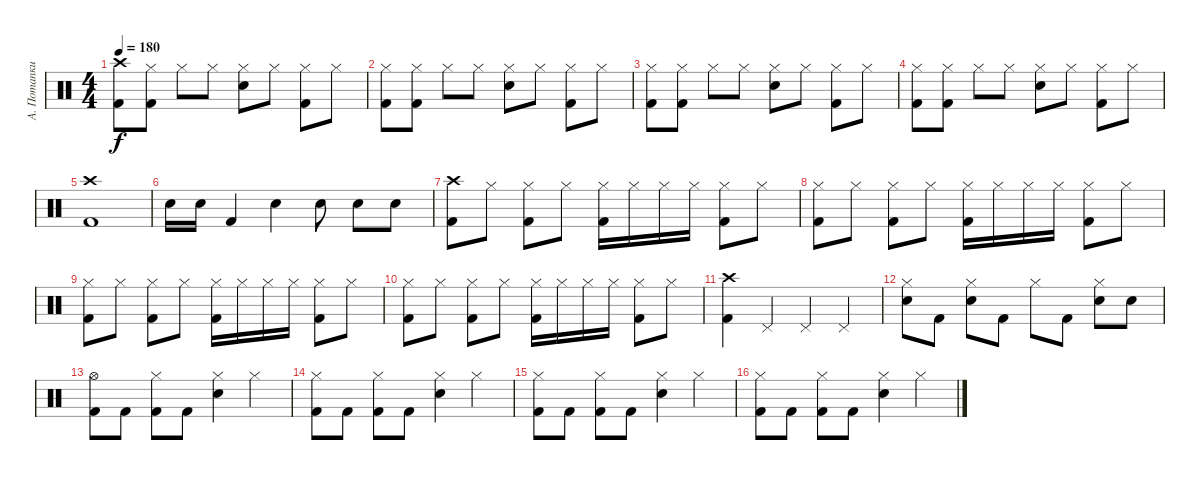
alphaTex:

\track ("А. Потапкин" "А. Потапки") {instrument percussion}
\staff {score}
\articulation defaults
\ts (4 4)
\tempo 180
\clef neutral
\ks c
("Crash high (hit)" "Kick (hit) 2").8{dy f} ("Hi-Hat (closed)" "Kick (hit) 2").8 "Hi-Hat (closed)".8 "Hi-Hat (closed)".8 ("Hi-Hat (closed)" "Electric Snare (hit)").8 "Hi-Hat (closed)".8 ("Hi-Hat (closed)" "Kick (hit) 2").8 "Hi-Hat (closed)".8 |
("Hi-Hat (closed)" "Kick (hit) 2").8 ("Hi-Hat (closed)" "Kick (hit) 2").8 "Hi-Hat (closed)".8 "Hi-Hat (closed)".8 ("Hi-Hat (closed)" "Electric Snare (hit)").8 "Hi-Hat (closed)".8 ("Hi-Hat (closed)" "Kick (hit) 2").8 "Hi-Hat (closed)".8 |
("Hi-Hat (closed)" "Kick (hit) 2").8 ("Hi-Hat (closed)" "Kick (hit) 2").8 "Hi-Hat (closed)".8 "Hi-Hat (closed)".8 ("Hi-Hat (closed)" "Electric Snare (hit)").8 "Hi-Hat (closed)".8 ("Hi-Hat (closed)" "Kick (hit) 2").8 "Hi-Hat (closed)".8 |
("Hi-Hat (closed)" "Kick (hit) 2").8 ("Hi-Hat (closed)" "Kick (hit) 2").8 "Hi-Hat (closed)".8 "Hi-Hat (closed)".8 ("Hi-Hat (closed)" "Electric Snare (hit)").8 "Hi-Hat (closed)".8 ("Hi-Hat (closed)" "Kick (hit) 2").8 "Hi-Hat (closed)".8 |
("Crash high (hit)" "Kick (hit) 2").1 |
"Electric Snare (hit)".16 "Electric Snare (hit)".16 "Kick (hit) 2".4 "Electric Snare (hit)".4 "Electric Snare (hit)".8 "Electric Snare (hit)".8 "Electric Snare (hit)".8 |
("Crash high (hit)" "Kick (hit) 2").8 "Hi-Hat (closed)".8 ("Hi-Hat (closed)" "Kick (hit) 2").8 "Hi-Hat (closed)".8 ("Hi-Hat (closed)" "Kick (hit) 2").16 "Hi-Hat (closed)".16 "Hi-Hat (closed)".16 "Hi-Hat (closed)".16 ("Hi-Hat (closed)" "Kick (hit) 2").8 "Hi-Hat (closed)".8 |
("Hi-Hat (closed)" "Kick (hit) 2").8 "Hi-Hat (closed)".8 ("Hi-Hat (closed)" "Kick (hit) 2").8 "Hi-Hat (closed)".8 ("Hi-Hat (closed)" "Kick (hit) 2").16 "Hi-Hat (closed)".16 "Hi-Hat (closed)".16 "Hi-Hat (closed)".16 ("Hi-Hat (closed)" "Kick (hit) 2").8 "Hi-Hat (closed)".8 |
("Hi-Hat (closed)" "Kick (hit) 2").8 "Hi-Hat (closed)".8 ("Hi-Hat (closed)" "Kick (hit) 2").8 "Hi-Hat (closed)".8 ("Hi-Hat (closed)" "Kick (hit) 2").16 "Hi-Hat (closed)".16 "Hi-Hat (closed)".16 "Hi-Hat (closed)".16 ("Hi-Hat (closed)" "Kick (hit) 2").8 "Hi-Hat (closed)".8 |
("Hi-Hat (closed)" "Kick (hit) 2").8 "Hi-Hat (closed)".8 ("Hi-Hat (closed)" "Kick (hit) 2").8 "Hi-Hat (closed)".8 ("Hi-Hat (closed)" "Kick (hit) 2").16 "Hi-Hat (closed)".16 "Hi-Hat (closed)".16 "Hi-Hat (closed)".16 ("Hi-Hat (closed)" "Kick (hit) 2").8 "Hi-Hat (closed)".8 |
("Crash high (hit)" "Kick (hit) 2").4 "Pedal Hi-Hat (hit)".4 "Pedal Hi-Hat (hit)".4 "Pedal Hi-Hat (hit)".4 |
("Hi-Hat (closed)" "Electric Snare (hit)").8 "Kick (hit) 2".8 ("Hi-Hat (closed)" "Electric Snare (hit)").8 "Kick (hit) 2".8 "Hi-Hat (closed)".8 "Kick (hit) 2".8 ("Hi-Hat (closed)" "Electric Snare (hit)").8 "Electric Snare (hit)".8 |
("Hi-Hat (open)" "Kick (hit) 2").8 "Kick (hit) 2".8 ("Hi-Hat (closed)" "Kick (hit) 2").8 "Kick (hit) 2".8 ("Hi-Hat (closed)" "Electric Snare (hit)").4 "Hi-Hat (closed)".4 |
("Hi-Hat (closed)" "Kick (hit) 2").8 "Kick (hit) 2".8 ("Hi-Hat (closed)" "Kick (hit) 2").8 "Kick (hit) 2".8 ("Hi-Hat (closed)" "Electric Snare (hit)").4 "Hi-Hat (closed)".4 |
("Hi-Hat (closed)" "Kick (hit) 2").8 "Kick (hit) 2".8 ("Hi-Hat (closed)" "Kick (hit) 2").8 "Kick (hit) 2".8 ("Hi-Hat (closed)" "Electric Snare (hit)").4 "Hi-Hat (closed)".4 |
("Hi-Hat (closed)" "Kick (hit) 2").8 "Kick (hit) 2".8 ("Hi-Hat (closed)" "Kick (hit) 2").8 "Kick (hit) 2".8 ("Hi-Hat (closed)" "Electric Snare (hit)").4 "Hi-Hat (closed)".4
